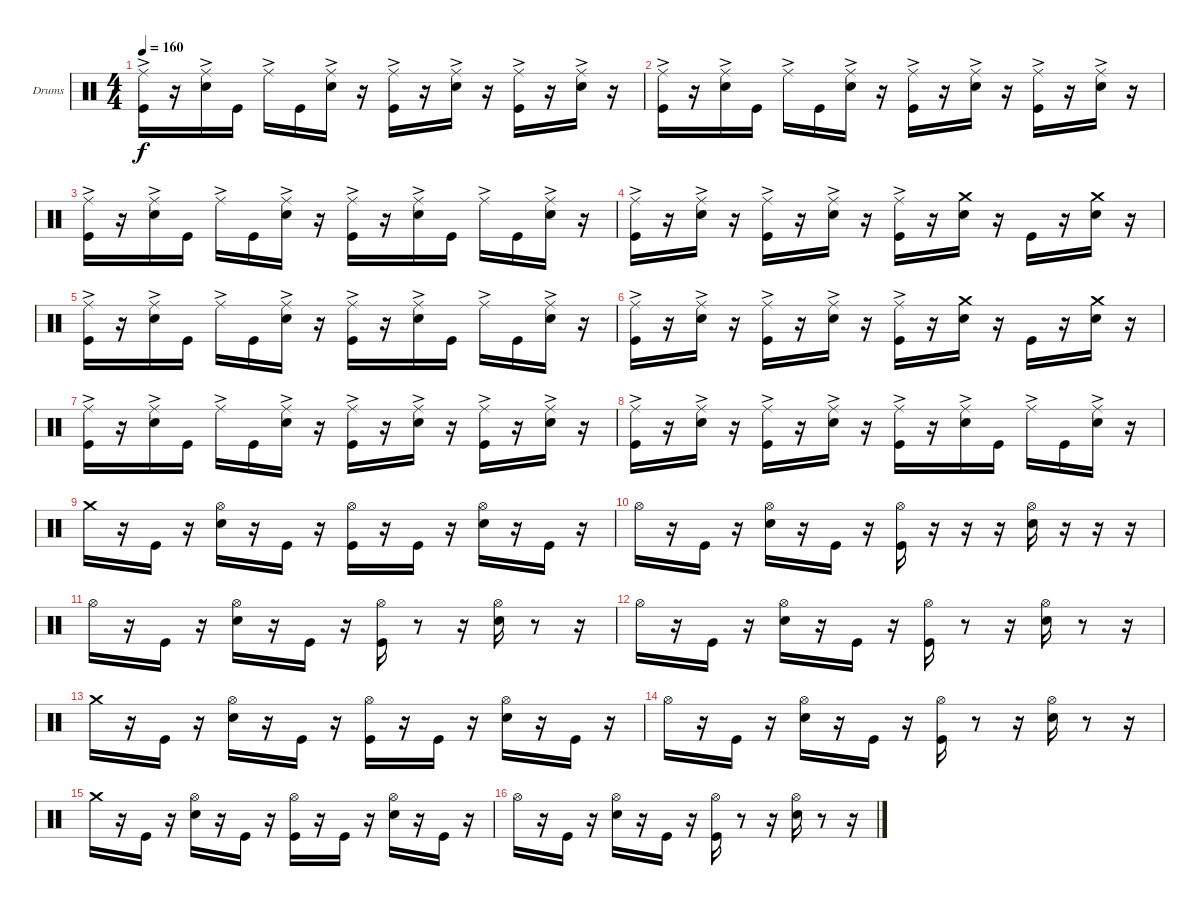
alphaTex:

\defaultSystemsLayout 4
\bracketExtendMode groupsimilarinstruments
\firstSystemTrackNameOrientation horizontal
\otherSystemsTrackNameOrientation horizontal
\track ("Drumkit" "Drums") {instrument percussion}
\staff {score}
\articulation defaults
\ts (4 4)
\tempo 160
\clef neutral
\ks c
("Ride (middle)"{ac} "Kick (hit)").16{dy f} r.16 ("Ride (middle)"{ac} "Snare (hit) 2").16 "Kick (hit)".16 "Ride (middle)"{ac}.16 "Kick (hit)".16 ("Ride (middle)"{ac} "Snare (hit) 2").16 r.16 ("Ride (middle)"{ac} "Kick (hit)").16 r.16 ("Ride (middle)"{ac} "Snare (hit) 2").16 r.16 ("Ride (middle)"{ac} "Kick (hit)").16 r.16 ("Ride (middle)"{ac} "Snare (hit) 2").16 r.16 |
("Ride (middle)"{ac} "Kick (hit)").16 r.16 ("Ride (middle)"{ac} "Snare (hit) 2").16 "Kick (hit)".16 "Ride (middle)"{ac}.16 "Kick (hit)".16 ("Ride (middle)"{ac} "Snare (hit) 2").16 r.16 ("Ride (middle)"{ac} "Kick (hit)").16 r.16 ("Ride (middle)"{ac} "Snare (hit) 2").16 r.16 ("Ride (middle)"{ac} "Kick (hit)").16 r.16 ("Ride (middle)"{ac} "Snare (hit) 2").16 r.16 |
("Ride (middle)"{ac} "Kick (hit)").16 r.16 ("Ride (middle)"{ac} "Snare (hit) 2").16 "Kick (hit)".16 "Ride (middle)"{ac}.16 "Kick (hit)".16 ("Ride (middle)"{ac} "Snare (hit) 2").16 r.16 ("Ride (middle)"{ac} "Kick (hit)").16 r.16 ("Ride (middle)"{ac} "Snare (hit) 2").16 "Kick (hit)".16 "Ride (middle)"{ac}.16 "Kick (hit)".16 ("Ride (middle)"{ac} "Snare (hit) 2").16 r.16 |
("Ride (middle)"{ac} "Kick (hit)").16 r.16 ("Ride (middle)"{ac} "Snare (hit) 2").16 r.16 ("Ride (middle)"{ac} "Kick (hit)").16 r.16 ("Ride (middle)"{ac} "Snare (hit) 2").16 r.16 ("Ride (middle)"{ac} "Kick (hit)").16 r.16 ("Crash medium (hit)" "Snare (hit) 2").16 r.16 "Kick (hit)".16 r.16 ("Crash medium (hit)" "Snare (hit) 2").16 r.16 |
("Ride (middle)"{ac} "Kick (hit)").16 r.16 ("Ride (middle)"{ac} "Snare (hit) 2").16 "Kick (hit)".16 "Ride (middle)"{ac}.16 "Kick (hit)".16 ("Ride (middle)"{ac} "Snare (hit) 2").16 r.16 ("Ride (middle)"{ac} "Kick (hit)").16 r.16 ("Ride (middle)"{ac} "Snare (hit) 2").16 "Kick (hit)".16 "Ride (middle)"{ac}.16 "Kick (hit)".16 ("Ride (middle)"{ac} "Snare (hit) 2").16 r.16 |
("Ride (middle)"{ac} "Kick (hit)").16 r.16 ("Ride (middle)"{ac} "Snare (hit) 2").16 r.16 ("Ride (middle)"{ac} "Kick (hit)").16 r.16 ("Ride (middle)"{ac} "Snare (hit) 2").16 r.16 ("Ride (middle)"{ac} "Kick (hit)").16 r.16 ("Crash medium (hit)" "Snare (hit) 2").16 r.16 "Kick (hit)".16 r.16 ("Crash medium (hit)" "Snare (hit) 2").16 r.16 |
("Ride (middle)"{ac} "Kick (hit)").16 r.16 ("Ride (middle)"{ac} "Snare (hit) 2").16 "Kick (hit)".16 "Ride (middle)"{ac}.16 "Kick (hit)".16 ("Ride (middle)"{ac} "Snare (hit) 2").16 r.16 ("Ride (middle)"{ac} "Kick (hit)").16 r.16 ("Ride (middle)"{ac} "Snare (hit) 2").16 r.16 ("Ride (middle)"{ac} "Kick (hit)").16 r.16 ("Ride (middle)"{ac} "Snare (hit) 2").16 r.16 |
("Ride (middle)"{ac} "Kick (hit)").16 r.16 ("Ride (middle)"{ac} "Snare (hit) 2").16 r.16 ("Ride (middle)"{ac} "Kick (hit)").16 r.16 ("Ride (middle)"{ac} "Snare (hit) 2").16 r.16 ("Ride (middle)"{ac} "Kick (hit)").16 r.16 ("Ride (middle)"{ac} "Snare (hit) 2").16 "Kick (hit)".16 "Ride (middle)"{ac}.16 "Kick (hit)".16 ("Ride (middle)"{ac} "Snare (hit) 2").16 r.16 |
"Crash medium (hit)".16 r.16 "Kick (hit)".16 r.16 ("Hi-Hat (open)" "Snare (hit) 2").16 r.16 "Kick (hit)".16 r.16 ("Hi-Hat (open)" "Kick (hit)").16 r.16 "Kick (hit)".16 r.16 ("Hi-Hat (open)" "Snare (hit) 2").16 r.16 "Kick (hit)".16 r.16 |
"Hi-Hat (open)".16 r.16 "Kick (hit)".16 r.16 ("Hi-Hat (open)" "Snare (hit) 2").16 r.16 "Kick (hit)".16 r.16 ("Hi-Hat (open)" "Kick (hit)").16 r.16 r.16 r.16 ("Hi-Hat (open)" "Snare (hit) 2").16 r.16 r.16 r.16 |
"Hi-Hat (open)".16 r.16 "Kick (hit)".16 r.16 ("Hi-Hat (open)" "Snare (hit) 2").16 r.16 "Kick (hit)".16 r.16 ("Hi-Hat (open)" "Kick (hit)").16 r.8 r.16 ("Hi-Hat (open)" "Snare (hit) 2").16 r.8 r.16 |
"Hi-Hat (open)".16 r.16 "Kick (hit)".16 r.16 ("Hi-Hat (open)" "Snare (hit) 2").16 r.16 "Kick (hit)".16 r.16 ("Hi-Hat (open)" "Kick (hit)").16 r.8 r.16 ("Hi-Hat (open)" "Snare (hit) 2").16 r.8 r.16 |
"Crash medium (hit)".16 r.16 "Kick (hit)".16 r.16 ("Hi-Hat (open)" "Snare (hit) 2").16 r.16 "Kick (hit)".16 r.16 ("Hi-Hat (open)" "Kick (hit)").16 r.16 "Kick (hit)".16 r.16 ("Hi-Hat (open)" "Snare (hit) 2").16 r.16 "Kick (hit)".16 r.16 |
"Hi-Hat (open)".16 r.16 "Kick (hit)".16 r.16 ("Hi-Hat (open)" "Snare (hit) 2").16 r.16 "Kick (hit)".16 r.16 ("Hi-Hat (open)" "Kick (hit)").16 r.8 r.16 ("Hi-Hat (open)" "Snare (hit) 2").16 r.8 r.16 |
"Crash medium (hit)".16 r.16 "Kick (hit)".16 r.16 ("Hi-Hat (open)" "Snare (hit) 2").16 r.16 "Kick (hit)".16 r.16 ("Hi-Hat (open)" "Kick (hit)").16 r.16 "Kick (hit)".16 r.16 ("Hi-Hat (open)" "Snare (hit) 2").16 r.16 "Kick (hit)".16 r.16 |
"Hi-Hat (open)".16 r.16 "Kick (hit)".16 r.16 ("Hi-Hat (open)" "Snare (hit) 2").16 r.16 "Kick (hit)".16 r.16 ("Hi-Hat (open)" "Kick (hit)").16 r.8 r.16 ("Hi-Hat (open)" "Snare (hit) 2").16 r.8 r.16
